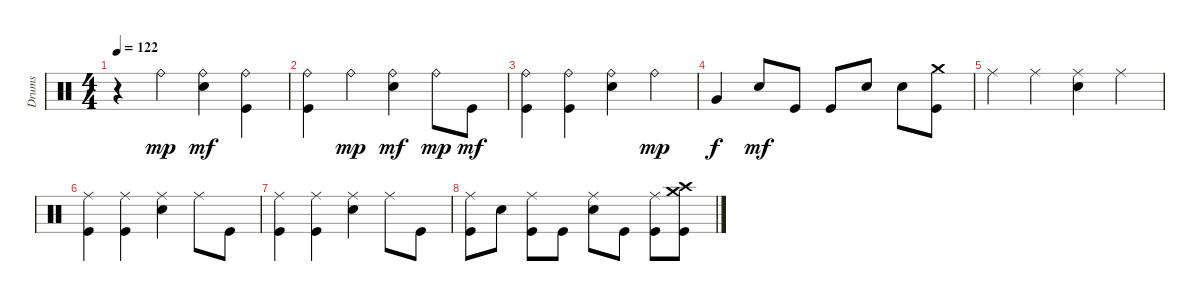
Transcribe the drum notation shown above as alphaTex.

\track ("Drums" "Drums") {instrument percussion}
\staff {score}
\articulation defaults
\ts (4 4)
\tempo 122
\clef neutral
\ks c
r.4{dy mf} "Ride (bell)".4{dy mp} ("Ride (bell)" "Snare (hit) 2").4{dy mf volume 15} ("Ride (bell)" "Kick (hit)").4 |
("Ride (bell)" "Kick (hit)").4 "Ride (bell)".4{dy mp} ("Ride (bell)" "Snare (hit) 2").4{dy mf volume 13} "Ride (bell)".8{dy mp} "Kick (hit)".8{dy mf} |
("Ride (bell)" "Kick (hit)").4 ("Ride (bell)" "Kick (hit)").4 ("Ride (bell)" "Snare (hit) 2").4{volume 12} "Ride (bell)".4{dy mp} |
"Very Low Tom (hit)".4{dy f} "Snare (hit) 2".8{dy mf volume 10} "Kick (hit)".8 "Kick (hit)".8 "Snare (hit) 2".8 "Snare (hit) 2".8{volume 9} ("Crash medium (hit)" "Kick (hit)").8 |
"Ride (middle)".4 "Ride (middle)".4 ("Ride (middle)" "Snare (hit) 2").4{volume 8} "Ride (middle)".4 |
("Ride (middle)" "Kick (hit)").4 ("Ride (middle)" "Kick (hit)").4 ("Ride (middle)" "Snare (hit) 2").4{volume 6} "Ride (middle)".8 "Kick (hit)".8 |
("Ride (middle)" "Kick (hit)").4 ("Ride (middle)" "Kick (hit)").4 ("Ride (middle)" "Snare (hit) 2").4{volume 4} "Ride (middle)".8 "Kick (hit)".8 |
("Ride (middle)" "Kick (hit)").8 "Snare (hit) 2".8{volume 3} ("Ride (middle)" "Kick (hit)").8 "Kick (hit)".8 ("Ride (middle)" "Snare (hit) 2").8{volume 3} "Kick (hit)".8 ("Ride (middle)" "Kick (hit)").8 ("Crash high (hit)" "Crash medium (hit)" "Kick (hit)").8
